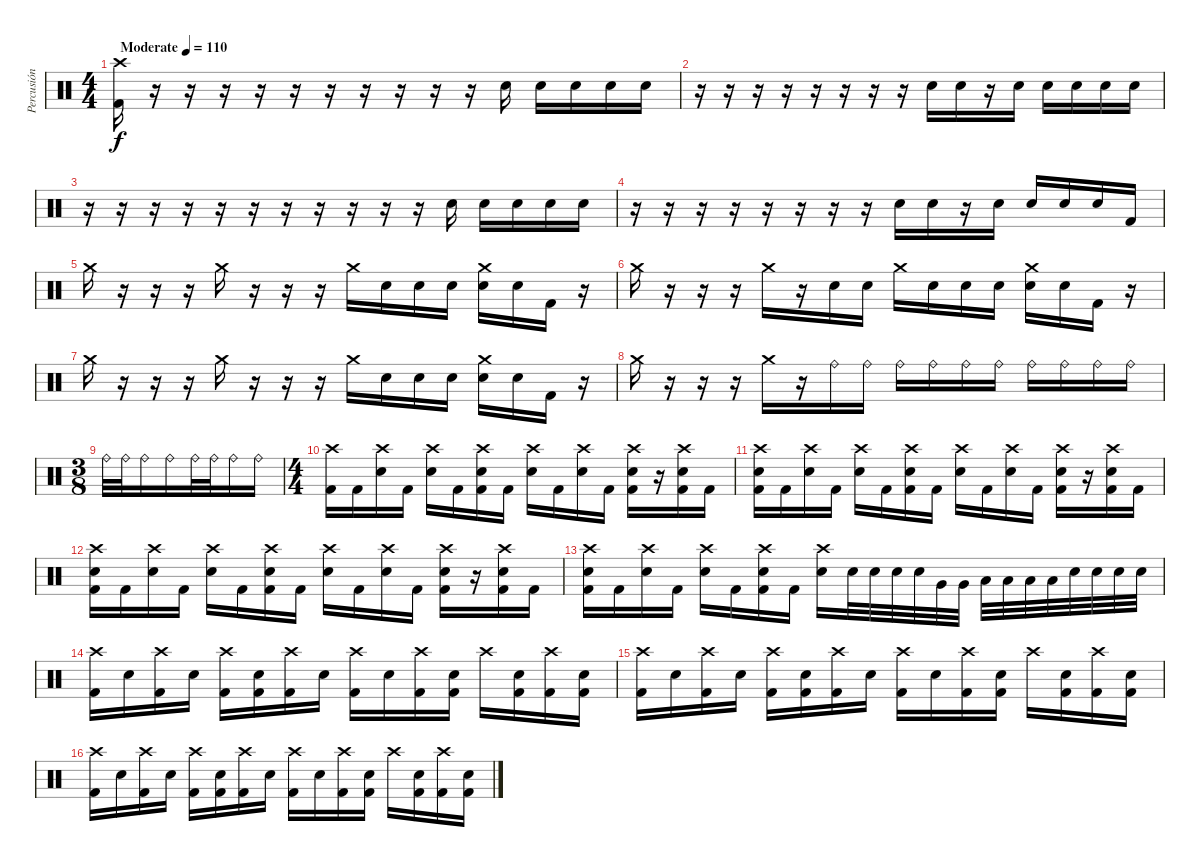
\track ("Percusión" "Percusión") {instrument percussion}
\staff {score}
\articulation defaults
\ts (4 4)
\tempo (110 "Moderate")
\clef neutral
\ks c
("Crash high (hit)" "Kick (hit) 2").16{dy f} r.16 r.16 r.16 r.16 r.16 r.16 r.16 r.16 r.16 r.16 "Electric Snare (hit)".16 "Electric Snare (hit)".16 "Electric Snare (hit)".16 "Electric Snare (hit)".16 "Electric Snare (hit)".16 |
r.16 r.16 r.16 r.16 r.16 r.16 r.16 r.16 "Electric Snare (hit)".16 "Electric Snare (hit)".16 r.16 "Electric Snare (hit)".16 "Electric Snare (hit)".16 "Electric Snare (hit)".16 "Electric Snare (hit)".16 "Electric Snare (hit)".16 |
r.16 r.16 r.16 r.16 r.16 r.16 r.16 r.16 r.16 r.16 r.16 "Electric Snare (hit)".16 "Electric Snare (hit)".16 "Electric Snare (hit)".16 "Electric Snare (hit)".16 "Electric Snare (hit)".16 |
r.16 r.16 r.16 r.16 r.16 r.16 r.16 r.16 "Electric Snare (hit)".16 "Electric Snare (hit)".16 r.16 "Electric Snare (hit)".16 "Electric Snare (hit)".16 "Electric Snare (hit)".16 "Electric Snare (hit)".16 "Kick (hit) 2".16 |
"Crash medium (hit)".16 r.16 r.16 r.16 "Crash medium (hit)".16 r.16 r.16 r.16 "Crash medium (hit)".16 "Electric Snare (hit)".16 "Electric Snare (hit)".16 "Electric Snare (hit)".16 ("Crash medium (hit)" "Electric Snare (hit)").16 "Electric Snare (hit)".16 "Kick (hit) 2".16 r.16 |
"Crash medium (hit)".16 r.16 r.16 r.16 "Crash medium (hit)".16 r.16 "Electric Snare (hit)".16 "Electric Snare (hit)".16 "Crash medium (hit)".16 "Electric Snare (hit)".16 "Electric Snare (hit)".16 "Electric Snare (hit)".16 ("Crash medium (hit)" "Electric Snare (hit)").16 "Electric Snare (hit)".16 "Kick (hit) 2".16 r.16 |
"Crash medium (hit)".16 r.16 r.16 r.16 "Crash medium (hit)".16 r.16 r.16 r.16 "Crash medium (hit)".16 "Electric Snare (hit)".16 "Electric Snare (hit)".16 "Electric Snare (hit)".16 ("Crash medium (hit)" "Electric Snare (hit)").16 "Electric Snare (hit)".16 "Kick (hit) 2".16 r.16 |
"Crash medium (hit)".16 r.16 r.16 r.16 "Crash medium (hit)".16 r.16 "Ride (bell)".16 "Ride (bell)".16 "Ride (bell)".16 "Ride (bell)".16 "Ride (bell)".16 "Ride (bell)".16 "Ride (bell)".16 "Ride (bell)".16 "Ride (bell)".16 "Ride (bell)".16 |
\ts (3 8)
"Ride (bell)".32 "Ride (bell)".32 "Ride (bell)".16 "Ride (bell)".16 "Ride (bell)".32 "Ride (bell)".32 "Ride (bell)".16 "Ride (bell)".16 |
\ts (4 4)
("Crash high (hit)" "Kick (hit) 2").16 "Kick (hit) 2".16 ("Crash high (hit)" "Electric Snare (hit)").16 "Kick (hit) 2".16 ("Crash high (hit)" "Electric Snare (hit)").16 "Kick (hit) 2".16 ("Crash high (hit)" "Electric Snare (hit)" "Kick (hit) 2").16 "Kick (hit) 2".16 ("Crash high (hit)" "Electric Snare (hit)").16 "Kick (hit) 2".16 ("Crash high (hit)" "Electric Snare (hit)").16 "Kick (hit) 2".16 ("Crash high (hit)" "Electric Snare (hit)" "Kick (hit) 2").16 r.16 ("Crash high (hit)" "Electric Snare (hit)" "Kick (hit) 2").16 "Kick (hit) 2".16 |
("Crash high (hit)" "Electric Snare (hit)" "Kick (hit) 2").16 "Kick (hit) 2".16 ("Crash high (hit)" "Electric Snare (hit)").16 "Kick (hit) 2".16 ("Crash high (hit)" "Electric Snare (hit)").16 "Kick (hit) 2".16 ("Crash high (hit)" "Electric Snare (hit)" "Kick (hit) 2").16 "Kick (hit) 2".16 ("Crash high (hit)" "Electric Snare (hit)").16 "Kick (hit) 2".16 ("Crash high (hit)" "Electric Snare (hit)").16 "Kick (hit) 2".16 ("Crash high (hit)" "Electric Snare (hit)" "Kick (hit) 2").16 r.16 ("Crash high (hit)" "Electric Snare (hit)" "Kick (hit) 2").16 "Kick (hit) 2".16 |
("Crash high (hit)" "Electric Snare (hit)" "Kick (hit) 2").16 "Kick (hit) 2".16 ("Crash high (hit)" "Electric Snare (hit)").16 "Kick (hit) 2".16 ("Crash high (hit)" "Electric Snare (hit)").16 "Kick (hit) 2".16 ("Crash high (hit)" "Electric Snare (hit)" "Kick (hit) 2").16 "Kick (hit) 2".16 ("Crash high (hit)" "Electric Snare (hit)").16 "Kick (hit) 2".16 ("Crash high (hit)" "Electric Snare (hit)").16 "Kick (hit) 2".16 ("Crash high (hit)" "Electric Snare (hit)" "Kick (hit) 2").16 r.16 ("Crash high (hit)" "Electric Snare (hit)" "Kick (hit) 2").16 "Kick (hit) 2".16 |
("Crash high (hit)" "Electric Snare (hit)" "Kick (hit) 2").16 "Kick (hit) 2".16 ("Crash high (hit)" "Electric Snare (hit)").16 "Kick (hit) 2".16 ("Crash high (hit)" "Electric Snare (hit)").16 "Kick (hit) 2".16 ("Crash high (hit)" "Electric Snare (hit)" "Kick (hit) 2").16 "Kick (hit) 2".16 ("Crash high (hit)" "Electric Snare (hit)").16 "Electric Snare (hit)".32 "Electric Snare (hit)".32 "Electric Snare (hit)".32 "Electric Snare (hit)".32 "Very Low Tom (hit)".32 "Very Low Tom (hit)".32 "Low Tom (hit)".32 "Low Tom (hit)".32 "Low Floor Tom (hit)".32 "Low Floor Tom (hit)".32 "Electric Snare (hit)".32 "Electric Snare (hit)".32 "Electric Snare (hit)".32 "Electric Snare (hit)".32 |
("Crash high (hit)" "Kick (hit) 2").16 "Electric Snare (hit)".16 ("Crash high (hit)" "Kick (hit) 2").16 "Electric Snare (hit)".16 ("Crash high (hit)" "Kick (hit) 2").16 ("Electric Snare (hit)" "Kick (hit) 2").16 ("Crash high (hit)" "Kick (hit) 2").16 "Electric Snare (hit)".16 ("Crash high (hit)" "Kick (hit) 2").16 "Electric Snare (hit)".16 ("Crash high (hit)" "Kick (hit) 2").16 ("Electric Snare (hit)" "Kick (hit) 2").16 "Crash high (hit)".16 ("Electric Snare (hit)" "Kick (hit) 2").16 ("Crash high (hit)" "Kick (hit) 2").16 ("Electric Snare (hit)" "Kick (hit) 2").16 |
("Crash high (hit)" "Kick (hit) 2").16 "Electric Snare (hit)".16 ("Crash high (hit)" "Kick (hit) 2").16 "Electric Snare (hit)".16 ("Crash high (hit)" "Kick (hit) 2").16 ("Electric Snare (hit)" "Kick (hit) 2").16 ("Crash high (hit)" "Kick (hit) 2").16 "Electric Snare (hit)".16 ("Crash high (hit)" "Kick (hit) 2").16 "Electric Snare (hit)".16 ("Crash high (hit)" "Kick (hit) 2").16 ("Electric Snare (hit)" "Kick (hit) 2").16 "Crash high (hit)".16 ("Electric Snare (hit)" "Kick (hit) 2").16 ("Crash high (hit)" "Kick (hit) 2").16 ("Electric Snare (hit)" "Kick (hit) 2").16 |
("Crash high (hit)" "Kick (hit) 2").16 "Electric Snare (hit)".16 ("Crash high (hit)" "Kick (hit) 2").16 "Electric Snare (hit)".16 ("Crash high (hit)" "Kick (hit) 2").16 ("Electric Snare (hit)" "Kick (hit) 2").16 ("Crash high (hit)" "Kick (hit) 2").16 "Electric Snare (hit)".16 ("Crash high (hit)" "Kick (hit) 2").16 "Electric Snare (hit)".16 ("Crash high (hit)" "Kick (hit) 2").16 ("Electric Snare (hit)" "Kick (hit) 2").16 "Crash high (hit)".16 ("Electric Snare (hit)" "Kick (hit) 2").16 ("Crash high (hit)" "Kick (hit) 2").16 ("Electric Snare (hit)" "Kick (hit) 2").16
